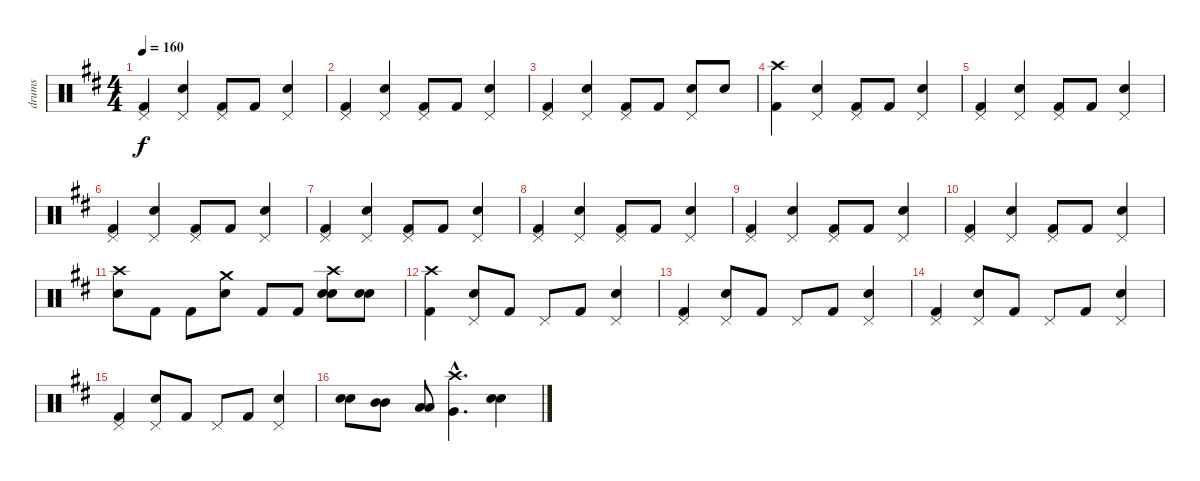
\track ("drums" "drums") {instrument percussion}
\staff {score}
\articulation defaults
\ts (4 4)
\tempo 160
\clef neutral
\ks bminor
("Pedal Hi-Hat (hit)" "Kick (hit) 2").4{dy f} ("Pedal Hi-Hat (hit)" "Snare (hit) 2").4 ("Pedal Hi-Hat (hit)" "Kick (hit) 2").8 "Kick (hit) 2".8 ("Pedal Hi-Hat (hit)" "Snare (hit) 2").4 |
("Pedal Hi-Hat (hit)" "Kick (hit) 2").4 ("Pedal Hi-Hat (hit)" "Snare (hit) 2").4 ("Pedal Hi-Hat (hit)" "Kick (hit) 2").8 "Kick (hit) 2".8 ("Pedal Hi-Hat (hit)" "Snare (hit) 2").4 |
("Pedal Hi-Hat (hit)" "Kick (hit) 2").4 ("Pedal Hi-Hat (hit)" "Snare (hit) 2").4 ("Pedal Hi-Hat (hit)" "Kick (hit) 2").8 "Kick (hit) 2".8 ("Pedal Hi-Hat (hit)" "Snare (hit) 2").8 "Snare (hit) 2".8 |
("Crash high (hit)" "Kick (hit) 2").4 ("Pedal Hi-Hat (hit)" "Snare (hit) 2").4 ("Pedal Hi-Hat (hit)" "Kick (hit) 2").8 "Kick (hit) 2".8 ("Pedal Hi-Hat (hit)" "Snare (hit) 2").4 |
("Pedal Hi-Hat (hit)" "Kick (hit) 2").4 ("Pedal Hi-Hat (hit)" "Snare (hit) 2").4 ("Pedal Hi-Hat (hit)" "Kick (hit) 2").8 "Kick (hit) 2".8 ("Pedal Hi-Hat (hit)" "Snare (hit) 2").4 |
("Pedal Hi-Hat (hit)" "Kick (hit) 2").4 ("Pedal Hi-Hat (hit)" "Snare (hit) 2").4 ("Pedal Hi-Hat (hit)" "Kick (hit) 2").8 "Kick (hit) 2".8 ("Pedal Hi-Hat (hit)" "Snare (hit) 2").4 |
("Pedal Hi-Hat (hit)" "Kick (hit) 2").4 ("Pedal Hi-Hat (hit)" "Snare (hit) 2").4 ("Pedal Hi-Hat (hit)" "Kick (hit) 2").8 "Kick (hit) 2".8 ("Pedal Hi-Hat (hit)" "Snare (hit) 2").4 |
("Pedal Hi-Hat (hit)" "Kick (hit) 2").4 ("Pedal Hi-Hat (hit)" "Snare (hit) 2").4 ("Pedal Hi-Hat (hit)" "Kick (hit) 2").8 "Kick (hit) 2".8 ("Pedal Hi-Hat (hit)" "Snare (hit) 2").4 |
("Pedal Hi-Hat (hit)" "Kick (hit) 2").4 ("Pedal Hi-Hat (hit)" "Snare (hit) 2").4 ("Pedal Hi-Hat (hit)" "Kick (hit) 2").8 "Kick (hit) 2".8 ("Pedal Hi-Hat (hit)" "Snare (hit) 2").4 |
("Pedal Hi-Hat (hit)" "Kick (hit) 2").4 ("Pedal Hi-Hat (hit)" "Snare (hit) 2").4 ("Pedal Hi-Hat (hit)" "Kick (hit) 2").8 "Kick (hit) 2".8 ("Pedal Hi-Hat (hit)" "Snare (hit) 2").4 |
("Crash high (hit)" "Snare (hit) 2").8 "Kick (hit) 2".8 "Kick (hit) 2".8 ("Crash medium (hit)" "Snare (hit) 2").8 "Kick (hit) 2".8 "Kick (hit) 2".8 ("Crash high (hit)" "Snare (hit) 2" "Snare (hit) 2").8 ("Snare (hit) 2" "Snare (hit) 2").8 |
("Crash high (hit)" "Kick (hit) 2").4 ("Pedal Hi-Hat (hit)" "Snare (hit) 2").8 "Kick (hit) 2".8 "Pedal Hi-Hat (hit)".8 "Kick (hit) 2".8 ("Pedal Hi-Hat (hit)" "Snare (hit) 2").4 |
("Pedal Hi-Hat (hit)" "Kick (hit) 2").4 ("Pedal Hi-Hat (hit)" "Snare (hit) 2").8 "Kick (hit) 2".8 "Pedal Hi-Hat (hit)".8 "Kick (hit) 2".8 ("Pedal Hi-Hat (hit)" "Snare (hit) 2").4 |
("Pedal Hi-Hat (hit)" "Kick (hit) 2").4 ("Pedal Hi-Hat (hit)" "Snare (hit) 2").8 "Kick (hit) 2".8 "Pedal Hi-Hat (hit)".8 "Kick (hit) 2".8 ("Pedal Hi-Hat (hit)" "Snare (hit) 2").4 |
("Pedal Hi-Hat (hit)" "Kick (hit) 2").4 ("Pedal Hi-Hat (hit)" "Snare (hit) 2").8 "Kick (hit) 2".8 "Pedal Hi-Hat (hit)".8 "Kick (hit) 2".8 ("Pedal Hi-Hat (hit)" "Snare (hit) 2").4 |
("Snare (hit) 2" "Snare (hit) 2").8 ("Mid Tom (hit)" "Mid Tom (hit)").8 ("Low Tom (hit)" "Low Tom (hit)").8 ("Crash high (hit)"{hac} "Very Low Tom (hit)"{hac}).4{d} ("Snare (hit) 2" "Snare (hit) 2").4
